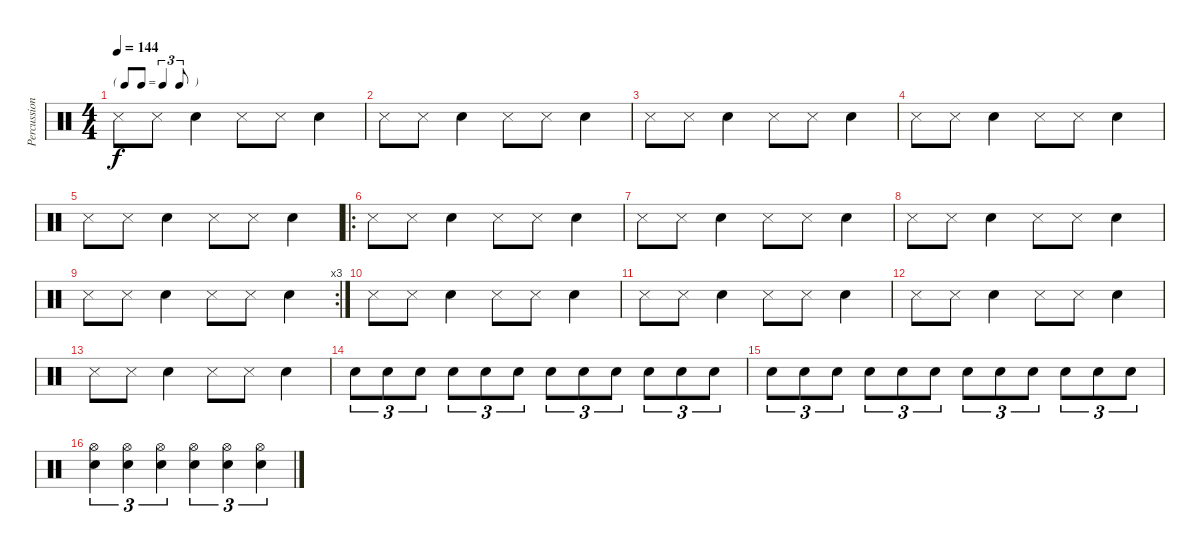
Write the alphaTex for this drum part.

\track ("Percussions" "Percussion") {instrument percussion}
\staff {score}
\articulation defaults
\ts (4 4)
\tf triplet8th
\tempo 144
\clef neutral
\ks c "Snare (side stick) 3".8{dy f} "Snare (side stick) 3".8 "Snare (hit) 2".4 "Snare (side stick) 3".8 "Snare (side stick) 3".8 "Snare (hit) 2".4
|
"Snare (side stick) 3".8 "Snare (side stick) 3".8 "Snare (hit) 2".4 "Snare (side stick) 3".8 "Snare (side stick) 3".8 "Snare (hit) 2".4 |
"Snare (side stick) 3".8 "Snare (side stick) 3".8 "Snare (hit) 2".4 "Snare (side stick) 3".8 "Snare (side stick) 3".8 "Snare (hit) 2".4 |
"Snare (side stick) 3".8 "Snare (side stick) 3".8 "Snare (hit) 2".4 "Snare (side stick) 3".8 "Snare (side stick) 3".8 "Snare (hit) 2".4 |
"Snare (side stick) 3".8 "Snare (side stick) 3".8 "Snare (hit) 2".4 "Snare (side stick) 3".8 "Snare (side stick) 3".8 "Snare (hit) 2".4 |
\ro "Snare (side stick) 3".8 "Snare (side stick) 3".8 "Snare (hit) 2".4 "Snare (side stick) 3".8 "Snare (side stick) 3".8 "Snare (hit) 2".4
|
"Snare (side stick) 3".8 "Snare (side stick) 3".8 "Snare (hit) 2".4 "Snare (side stick) 3".8 "Snare (side stick) 3".8 "Snare (hit) 2".4 |
"Snare (side stick) 3".8 "Snare (side stick) 3".8 "Snare (hit) 2".4 "Snare (side stick) 3".8 "Snare (side stick) 3".8 "Snare (hit) 2".4 |
\rc 3 "Snare (side stick) 3".8 "Snare (side stick) 3".8 "Snare (hit) 2".4 "Snare (side stick) 3".8 "Snare (side stick) 3".8 "Snare (hit) 2".4
|
"Snare (side stick) 3".8 "Snare (side stick) 3".8 "Snare (hit) 2".4 "Snare (side stick) 3".8 "Snare (side stick) 3".8 "Snare (hit) 2".4 |
"Snare (side stick) 3".8 "Snare (side stick) 3".8 "Snare (hit) 2".4 "Snare (side stick) 3".8 "Snare (side stick) 3".8 "Snare (hit) 2".4 |
"Snare (side stick) 3".8 "Snare (side stick) 3".8 "Snare (hit) 2".4 "Snare (side stick) 3".8 "Snare (side stick) 3".8 "Snare (hit) 2".4 |
"Snare (side stick) 3".8 "Snare (side stick) 3".8 "Snare (hit) 2".4 "Snare (side stick) 3".8 "Snare (side stick) 3".8 "Snare (hit) 2".4 |
"Snare (hit) 2".8{tu (3 2)} "Snare (hit) 2".8{tu (3 2)} "Snare (hit) 2".8{tu (3 2)} "Snare (hit) 2".8{tu (3 2)} "Snare (hit) 2".8{tu (3 2)} "Snare (hit) 2".8{tu (3 2)} "Snare (hit) 2".8{tu (3 2)} "Snare (hit) 2".8{tu (3 2)} "Snare (hit) 2".8{tu (3 2)} "Snare (hit) 2".8{tu (3 2)} "Snare (hit) 2".8{tu (3 2)} "Snare (hit) 2".8{tu (3 2)} |
"Snare (hit) 2".8{tu (3 2)} "Snare (hit) 2".8{tu (3 2)} "Snare (hit) 2".8{tu (3 2)} "Snare (hit) 2".8{tu (3 2)} "Snare (hit) 2".8{tu (3 2)} "Snare (hit) 2".8{tu (3 2)} "Snare (hit) 2".8{tu (3 2)} "Snare (hit) 2".8{tu (3 2)} "Snare (hit) 2".8{tu (3 2)} "Snare (hit) 2".8{tu (3 2)} "Snare (hit) 2".8{tu (3 2)} "Snare (hit) 2".8{tu (3 2)} |
("Snare (hit) 2" "Hi-Hat (open)").4{tu (3 2)} ("Snare (hit) 2" "Hi-Hat (open)").4{tu (3 2)} ("Snare (hit) 2" "Hi-Hat (open)").4{tu (3 2)} ("Snare (hit) 2" "Hi-Hat (open)").4{tu (3 2)} ("Snare (hit) 2" "Hi-Hat (open)").4{tu (3 2)} ("Snare (hit) 2" "Hi-Hat (open)").4{tu (3 2)}
